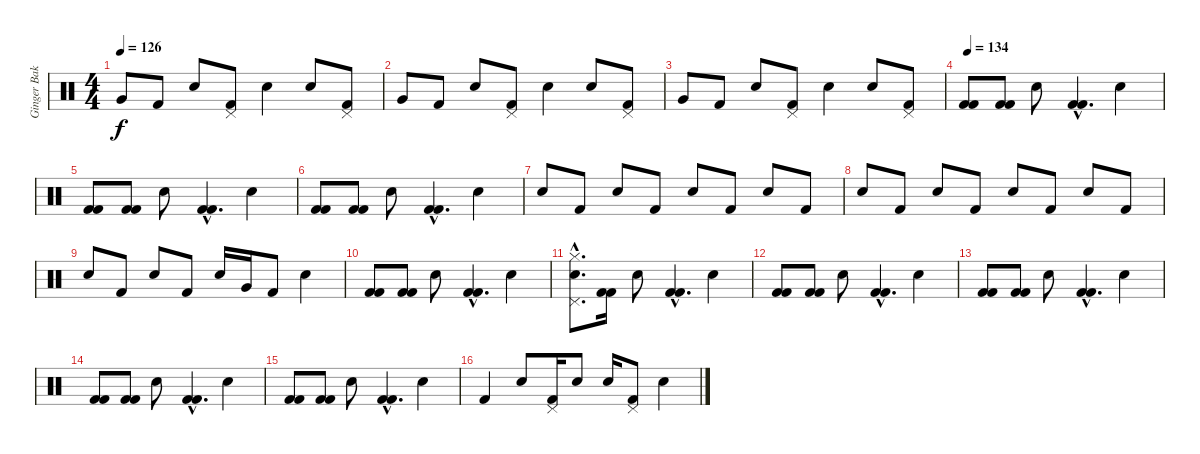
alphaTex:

\track ("Ginger Baker" "Ginger Bak") {instrument percussion}
\staff {score}
\articulation defaults
\ts (4 4)
\tempo 126
\clef neutral
\ks c "Very Low Tom (hit)".8{dy f} "Kick (hit) 2".8 "Snare (hit) 2".8
("Pedal Hi-Hat (hit)" "Kick (hit) 2").8 "Snare (hit) 2".4 "Snare (hit) 2".8 ("Pedal Hi-Hat (hit)" "Kick (hit) 2").8 |
"Very Low Tom (hit)".8 "Kick (hit) 2".8 "Snare (hit) 2".8 ("Pedal Hi-Hat (hit)" "Kick (hit) 2").8 "Snare (hit) 2".4 "Snare (hit) 2".8 ("Pedal Hi-Hat (hit)" "Kick (hit) 2").8 |
"Very Low Tom (hit)".8 "Kick (hit) 2".8 "Snare (hit) 2".8 ("Pedal Hi-Hat (hit)" "Kick (hit) 2").8 "Snare (hit) 2".4 "Snare (hit) 2".8 ("Pedal Hi-Hat (hit)" "Kick (hit) 2").8 |
\tempo 134
("Kick (hit) 2" "Kick (hit) 2").8 ("Kick (hit) 2" "Kick (hit) 2").8 "Snare (hit) 2".8 ("Kick (hit) 2"{hac} "Kick (hit) 2"{hac}).4{d} "Snare (hit) 2".4 |
("Kick (hit) 2" "Kick (hit) 2").8 ("Kick (hit) 2" "Kick (hit) 2").8 "Snare (hit) 2".8 ("Kick (hit) 2"{hac} "Kick (hit) 2"{hac}).4{d} "Snare (hit) 2".4 |
("Kick (hit) 2" "Kick (hit) 2").8 ("Kick (hit) 2" "Kick (hit) 2").8 "Snare (hit) 2".8 ("Kick (hit) 2"{hac} "Kick (hit) 2"{hac}).4{d} "Snare (hit) 2".4 |
"Snare (hit) 2".8 "Kick (hit) 2".8 "Snare (hit) 2".8 "Kick (hit) 2".8 "Snare (hit) 2".8 "Kick (hit) 2".8 "Snare (hit) 2".8 "Kick (hit) 2".8 |
"Snare (hit) 2".8 "Kick (hit) 2".8 "Snare (hit) 2".8 "Kick (hit) 2".8 "Snare (hit) 2".8 "Kick (hit) 2".8 "Snare (hit) 2".8 "Kick (hit) 2".8 |
"Snare (hit) 2".8 "Kick (hit) 2".8 "Snare (hit) 2".8 "Kick (hit) 2".8 "Electric Snare (hit)".16 "Very Low Tom (hit)".16 "Kick (hit) 2".8 "Snare (hit) 2".4 |
("Kick (hit) 2" "Kick (hit) 2").8 ("Kick (hit) 2" "Kick (hit) 2").8 "Snare (hit) 2".8 ("Kick (hit) 2"{hac} "Kick (hit) 2"{hac}).4{d} "Snare (hit) 2".4 |
("Snare (hit) 2"{hac} "Hi-Hat (closed)"{hac} "Pedal Hi-Hat (hit)"{hac}).8{d} ("Kick (hit) 2" "Kick (hit) 2").16 "Snare (hit) 2".8 ("Kick (hit) 2"{hac} "Kick (hit) 2"{hac}).4{d} "Snare (hit) 2".4 |
("Kick (hit) 2" "Kick (hit) 2").8 ("Kick (hit) 2" "Kick (hit) 2").8 "Snare (hit) 2".8 ("Kick (hit) 2"{hac} "Kick (hit) 2"{hac}).4{d} "Snare (hit) 2".4 |
("Kick (hit) 2" "Kick (hit) 2").8 ("Kick (hit) 2" "Kick (hit) 2").8 "Snare (hit) 2".8 ("Kick (hit) 2"{hac} "Kick (hit) 2"{hac}).4{d} "Snare (hit) 2".4 |
("Kick (hit) 2" "Kick (hit) 2").8 ("Kick (hit) 2" "Kick (hit) 2").8 "Snare (hit) 2".8 ("Kick (hit) 2"{hac} "Kick (hit) 2"{hac}).4{d} "Snare (hit) 2".4 |
("Kick (hit) 2" "Kick (hit) 2").8 ("Kick (hit) 2" "Kick (hit) 2").8 "Snare (hit) 2".8 ("Kick (hit) 2"{hac} "Kick (hit) 2"{hac}).4{d} "Snare (hit) 2".4 |
"Kick (hit) 2".4 "Snare (hit) 2".8 ("Pedal Hi-Hat (hit)" "Kick (hit) 2").16 "Snare (hit) 2".8 "Snare (hit) 2".16 ("Pedal Hi-Hat (hit)" "Kick (hit) 2").8 "Snare (hit) 2".4
